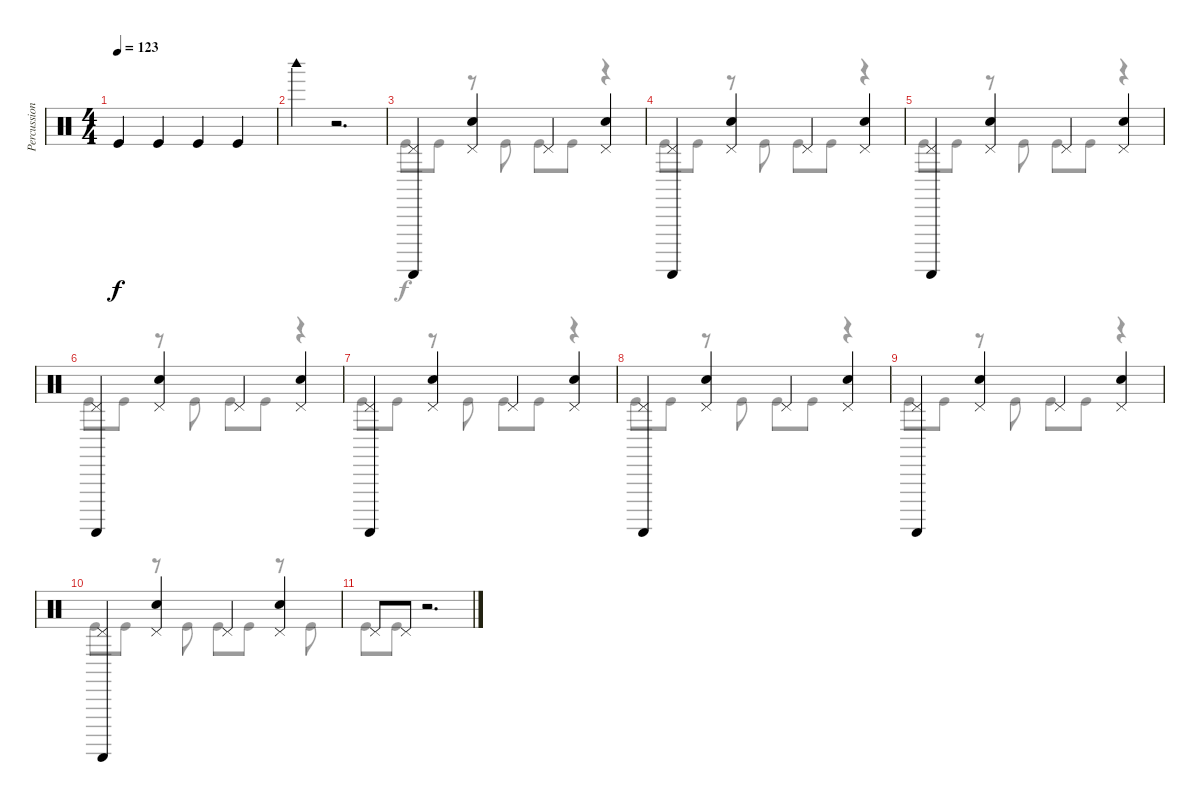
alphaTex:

\track ("Percussion" "Percussion") {instrument percussion}
\staff {score}
\articulation defaults
\voice
\ts (4 4)
\tempo 123
\clef neutral
\ks c "Kick (hit)".4{dy f} "Kick (hit)".4 "Kick (hit)".4 "Kick (hit)".4
|
"Woodblock high (hit)".4 r.2{d} |
("Guiro (scrap-return)" "Pedal Hi-Hat (hit)").4 ("Electric Snare (hit)" "Pedal Hi-Hat (hit)").4 "Pedal Hi-Hat (hit)".4 ("Electric Snare (hit)" "Pedal Hi-Hat (hit)").4 |
("Guiro (scrap-return)" "Pedal Hi-Hat (hit)").4 ("Electric Snare (hit)" "Pedal Hi-Hat (hit)").4 "Pedal Hi-Hat (hit)".4 ("Electric Snare (hit)" "Pedal Hi-Hat (hit)").4 |
("Guiro (scrap-return)" "Pedal Hi-Hat (hit)").4 ("Electric Snare (hit)" "Pedal Hi-Hat (hit)").4 "Pedal Hi-Hat (hit)".4 ("Electric Snare (hit)" "Pedal Hi-Hat (hit)").4 |
("Guiro (scrap-return)" "Pedal Hi-Hat (hit)").4 ("Electric Snare (hit)" "Pedal Hi-Hat (hit)").4 "Pedal Hi-Hat (hit)".4 ("Electric Snare (hit)" "Pedal Hi-Hat (hit)").4 |
("Guiro (scrap-return)" "Pedal Hi-Hat (hit)").4 ("Electric Snare (hit)" "Pedal Hi-Hat (hit)").4 "Pedal Hi-Hat (hit)".4 ("Electric Snare (hit)" "Pedal Hi-Hat (hit)").4 |
("Guiro (scrap-return)" "Pedal Hi-Hat (hit)").4 ("Electric Snare (hit)" "Pedal Hi-Hat (hit)").4 "Pedal Hi-Hat (hit)".4 ("Electric Snare (hit)" "Pedal Hi-Hat (hit)").4 |
("Guiro (scrap-return)" "Pedal Hi-Hat (hit)").4 ("Electric Snare (hit)" "Pedal Hi-Hat (hit)").4 "Pedal Hi-Hat (hit)".4 ("Electric Snare (hit)" "Pedal Hi-Hat (hit)").4 |
("Guiro (scrap-return)" "Pedal Hi-Hat (hit)").4 ("Electric Snare (hit)" "Pedal Hi-Hat (hit)").4 "Pedal Hi-Hat (hit)".4 ("Electric Snare (hit)" "Pedal Hi-Hat (hit)").4 |
"Pedal Hi-Hat (hit)".8 "Pedal Hi-Hat (hit)".8 r.2{d}
\voice
\clef neutral
\ottava regular
\simile none
\ks c
|
|
"Kick (hit)".8 "Kick (hit)".8 r.8 "Kick (hit)".8 "Kick (hit)".8 "Kick (hit)".8 r.4 |
"Kick (hit)".8 "Kick (hit)".8 r.8 "Kick (hit)".8 "Kick (hit)".8 "Kick (hit)".8 r.4 |
"Kick (hit)".8 "Kick (hit)".8 r.8 "Kick (hit)".8 "Kick (hit)".8 "Kick (hit)".8 r.4 |
"Kick (hit)".8 "Kick (hit)".8 r.8 "Kick (hit)".8 "Kick (hit)".8 "Kick (hit)".8 r.4 |
"Kick (hit)".8 "Kick (hit)".8 r.8 "Kick (hit)".8 "Kick (hit)".8 "Kick (hit)".8 r.4 |
"Kick (hit)".8 "Kick (hit)".8 r.8 "Kick (hit)".8 "Kick (hit)".8 "Kick (hit)".8 r.4 |
"Kick (hit)".8 "Kick (hit)".8 r.8 "Kick (hit)".8 "Kick (hit)".8 "Kick (hit)".8 r.4 |
"Kick (hit)".8 "Kick (hit)".8 r.8 "Kick (hit)".8 "Kick (hit)".8 "Kick (hit)".8 r.8 "Kick (hit)".8 |
"Kick (hit)".8 "Kick (hit)".8 r.2{d}
